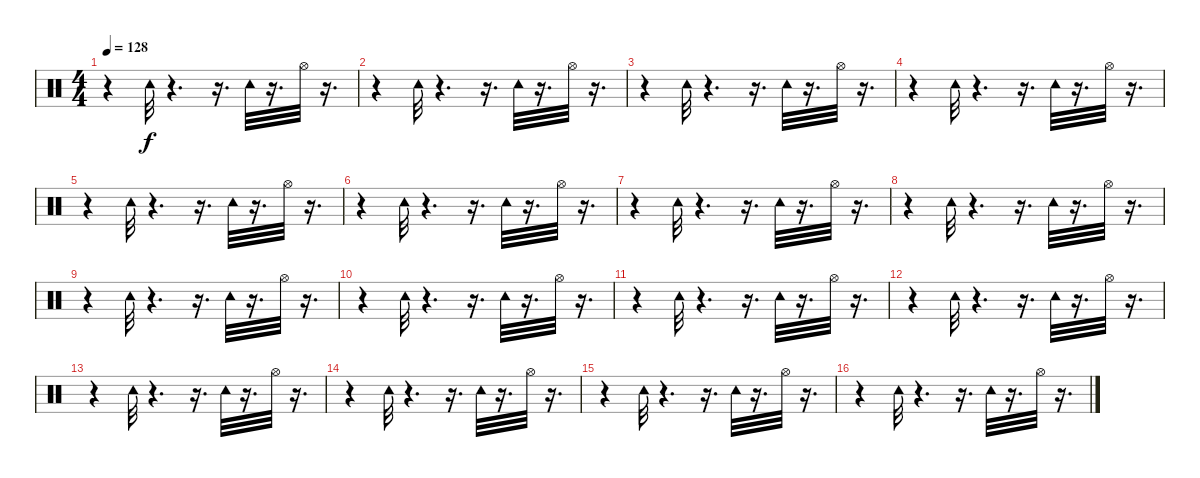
\track "" {instrument percussion}
\staff {score}
\articulation defaults
\ts (4 4)
\tempo 128
\clef neutral
\ks c
r.4{dy f} "Tambourine (hit)".32 r.4{d} r.16{d} "Tambourine (hit)".32 r.16{d} "Hi-Hat (open)".32 r.16{d} |
r.4 "Tambourine (hit)".32 r.4{d} r.16{d} "Tambourine (hit)".32 r.16{d} "Hi-Hat (open)".32 r.16{d} |
r.4 "Tambourine (hit)".32 r.4{d} r.16{d} "Tambourine (hit)".32 r.16{d} "Hi-Hat (open)".32 r.16{d} |
r.4 "Tambourine (hit)".32 r.4{d} r.16{d} "Tambourine (hit)".32 r.16{d} "Hi-Hat (open)".32 r.16{d} |
r.4 "Tambourine (hit)".32 r.4{d} r.16{d} "Tambourine (hit)".32 r.16{d} "Hi-Hat (open)".32 r.16{d} |
r.4 "Tambourine (hit)".32 r.4{d} r.16{d} "Tambourine (hit)".32 r.16{d} "Hi-Hat (open)".32 r.16{d} |
r.4 "Tambourine (hit)".32 r.4{d} r.16{d} "Tambourine (hit)".32 r.16{d} "Hi-Hat (open)".32 r.16{d} |
r.4 "Tambourine (hit)".32 r.4{d} r.16{d} "Tambourine (hit)".32 r.16{d} "Hi-Hat (open)".32 r.16{d} |
r.4 "Tambourine (hit)".32 r.4{d} r.16{d} "Tambourine (hit)".32 r.16{d} "Hi-Hat (open)".32 r.16{d} |
r.4 "Tambourine (hit)".32 r.4{d} r.16{d} "Tambourine (hit)".32 r.16{d} "Hi-Hat (open)".32 r.16{d} |
r.4 "Tambourine (hit)".32 r.4{d} r.16{d} "Tambourine (hit)".32 r.16{d} "Hi-Hat (open)".32 r.16{d} |
r.4 "Tambourine (hit)".32 r.4{d} r.16{d} "Tambourine (hit)".32 r.16{d} "Hi-Hat (open)".32 r.16{d} |
r.4 "Tambourine (hit)".32 r.4{d} r.16{d} "Tambourine (hit)".32 r.16{d} "Hi-Hat (open)".32 r.16{d} |
r.4 "Tambourine (hit)".32 r.4{d} r.16{d} "Tambourine (hit)".32 r.16{d} "Hi-Hat (open)".32 r.16{d} |
r.4 "Tambourine (hit)".32 r.4{d} r.16{d} "Tambourine (hit)".32 r.16{d} "Hi-Hat (open)".32 r.16{d} |
r.4 "Tambourine (hit)".32 r.4{d} r.16{d} "Tambourine (hit)".32 r.16{d} "Hi-Hat (open)".32 r.16{d}
